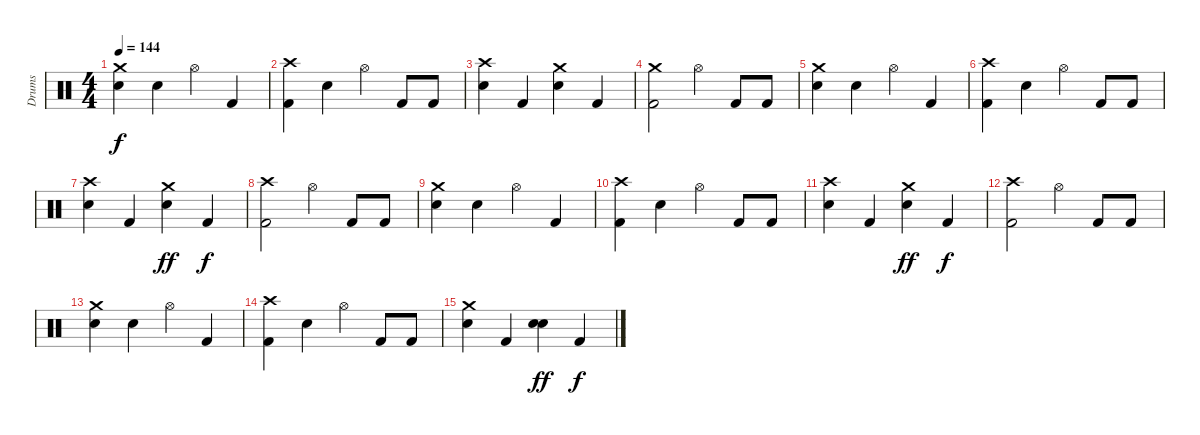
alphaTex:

\track ("Drums" "Drums") {instrument percussion}
\staff {score}
\articulation defaults
\ts (4 4)
\tempo 144
\clef neutral
\ks c
("Crash medium (hit)" "Electric Snare (hit)").4{dy f} "Electric Snare (hit)".4 "Hi-Hat (open)".4 "Kick (hit) 2".4 |
("Crash high (hit)" "Kick (hit) 2").4 "Electric Snare (hit)".4 "Hi-Hat (open)".4 "Kick (hit) 2".8 "Kick (hit) 2".8 |
("Crash high (hit)" "Electric Snare (hit)").4 "Kick (hit) 2".4 ("Crash medium (hit)" "Electric Snare (hit)").4 "Kick (hit) 2".4 |
("Crash medium (hit)" "Kick (hit) 2").2{volume 6} "Hi-Hat (open)".4 "Kick (hit) 2".8 "Kick (hit) 2".8 |
("Crash medium (hit)" "Electric Snare (hit)").4 "Electric Snare (hit)".4 "Hi-Hat (open)".4 "Kick (hit) 2".4 |
("Crash high (hit)" "Kick (hit) 2").4 "Electric Snare (hit)".4 "Hi-Hat (open)".4 "Kick (hit) 2".8 "Kick (hit) 2".8 |
("Crash high (hit)" "Electric Snare (hit)").4 "Kick (hit) 2".4 ("Crash medium (hit)" "Electric Snare (hit)").4{dy ff} "Kick (hit) 2".4{dy f} |
("Crash high (hit)" "Kick (hit) 2").2{volume 3} "Hi-Hat (open)".4 "Kick (hit) 2".8 "Kick (hit) 2".8 |
("Crash medium (hit)" "Electric Snare (hit)").4 "Electric Snare (hit)".4 "Hi-Hat (open)".4 "Kick (hit) 2".4 |
("Crash high (hit)" "Kick (hit) 2").4 "Electric Snare (hit)".4 "Hi-Hat (open)".4 "Kick (hit) 2".8 "Kick (hit) 2".8 |
("Crash high (hit)" "Electric Snare (hit)").4 "Kick (hit) 2".4 ("Crash medium (hit)" "Electric Snare (hit)").4{dy ff} "Kick (hit) 2".4{dy f} |
("Crash high (hit)" "Kick (hit) 2").2{volume 0} "Hi-Hat (open)".4 "Kick (hit) 2".8 "Kick (hit) 2".8 |
("Crash medium (hit)" "Electric Snare (hit)").4 "Electric Snare (hit)".4 "Hi-Hat (open)".4 "Kick (hit) 2".4 |
("Crash high (hit)" "Kick (hit) 2").4 "Electric Snare (hit)".4 "Hi-Hat (open)".4 "Kick (hit) 2".8 "Kick (hit) 2".8 |
("Crash medium (hit)" "Electric Snare (hit)").4 "Kick (hit) 2".4 ("Electric Snare (hit)" "Electric Snare (hit)").4{bu 60 dy ff} "Kick (hit) 2".4{dy f}
